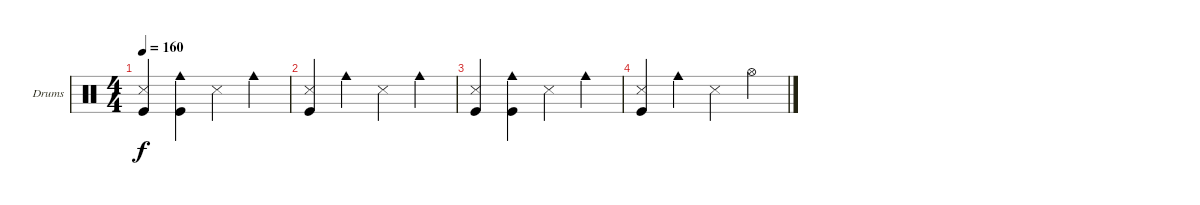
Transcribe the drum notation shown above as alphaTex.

\bracketExtendMode nobrackets
\firstSystemTrackNameOrientation horizontal
\otherSystemsTrackNameOrientation horizontal
\track ("Drumkit" "Drums") {instrument percussion}
\staff {score}
\articulation defaults
\ts (4 4)
\tempo 160
\clef neutral
\ks c
("Snare (side stick) 3" "Kick (hit)").4{dy f} ("Cowbell medium (hit)" "Kick (hit)").4 "Snare (side stick) 3".4 "Cowbell medium (hit)".4 |
("Snare (side stick) 3" "Kick (hit)").4 "Cowbell medium (hit)".4 "Snare (side stick) 3".4 "Cowbell medium (hit)".4 |
("Snare (side stick) 3" "Kick (hit)").4 ("Cowbell medium (hit)" "Kick (hit)").4 "Snare (side stick) 3".4 "Cowbell medium (hit)".4 |
("Snare (side stick) 3" "Kick (hit)").4 "Cowbell medium (hit)".4 "Snare (side stick) 3".4 "Hi-Hat (open)".4
